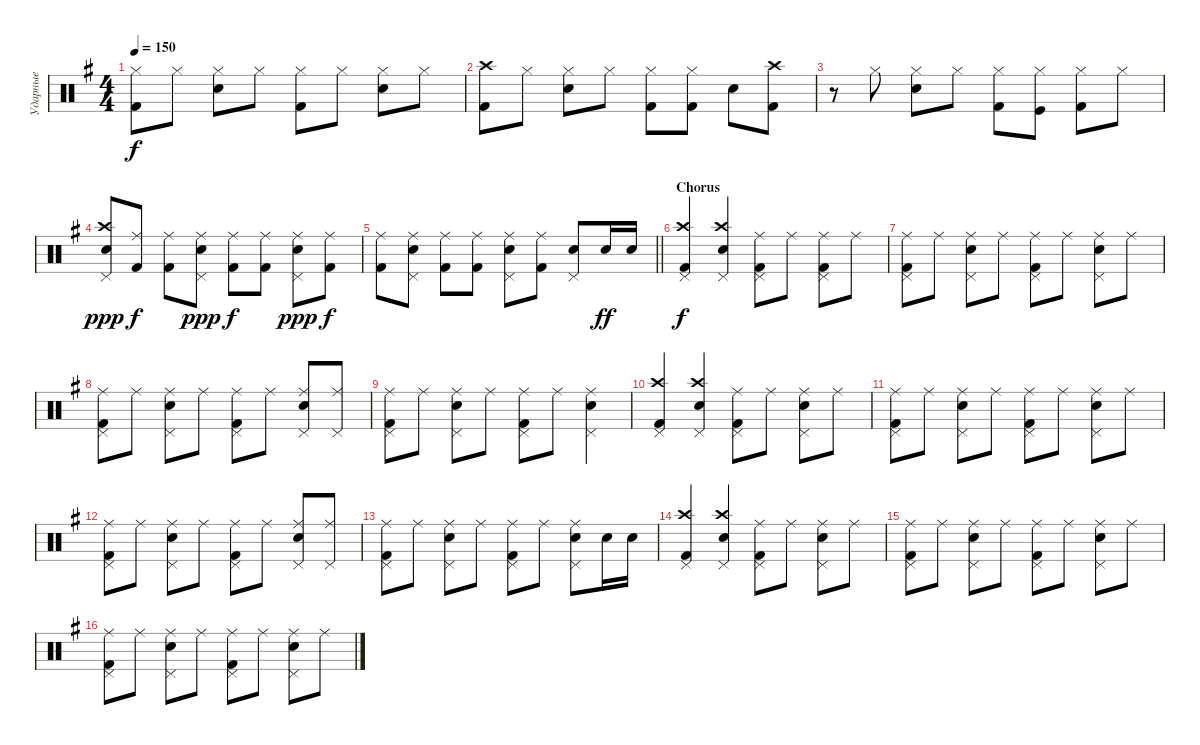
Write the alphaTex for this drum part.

\track ("Ударные" "Ударные") {instrument percussion}
\staff {score}
\articulation defaults
\ts (4 4)
\tempo 150
\clef neutral
\ks eminor
("Hi-Hat (closed)" "Kick (hit) 2").8{dy f} "Hi-Hat (closed)".8 ("Hi-Hat (closed)" "Snare (hit) 2").8 "Hi-Hat (closed)".8 ("Hi-Hat (closed)" "Kick (hit) 2").8 "Hi-Hat (closed)".8 ("Hi-Hat (closed)" "Snare (hit) 2").8 "Hi-Hat (closed)".8 |
("Kick (hit) 2" "Crash high (hit)").8 "Hi-Hat (closed)".8 ("Snare (hit) 2" "Hi-Hat (closed)").8 "Hi-Hat (closed)".8 ("Kick (hit) 2" "Hi-Hat (closed)").8 ("Hi-Hat (closed)" "Kick (hit) 2").8 "Snare (hit) 2".8 ("Kick (hit) 2" "Crash high (hit)").8 |
r.8 "Hi-Hat (closed)".8 ("Snare (hit) 2" "Hi-Hat (closed)").8 "Hi-Hat (closed)".8 ("Kick (hit) 2" "Hi-Hat (closed)").8 ("Hi-Hat (closed)" "Kick (hit)").8 ("Kick (hit) 2" "Hi-Hat (closed)").8 "Hi-Hat (closed)".8 |
("Snare (hit) 2" "Crash high (hit)" "Pedal Hi-Hat (hit)").8{dy ppp} ("Kick (hit) 2" "Ride (middle)").8{dy f} ("Kick (hit) 2" "Ride (middle)").8 ("Snare (hit) 2" "Ride (middle)" "Pedal Hi-Hat (hit)").8{dy ppp} ("Kick (hit) 2" "Ride (middle)").8{dy f} ("Kick (hit) 2" "Ride (middle)").8 ("Snare (hit) 2" "Ride (middle)" "Pedal Hi-Hat (hit)").8{dy ppp} ("Kick (hit) 2" "Ride (middle)").8{dy f} |
\barLineRight lightlight
("Kick (hit) 2" "Ride (middle)").8 ("Snare (hit) 2" "Ride (middle)" "Pedal Hi-Hat (hit)").8 ("Kick (hit) 2" "Ride (middle)").8 ("Kick (hit) 2" "Ride (middle)").8 ("Snare (hit) 2" "Ride (middle)" "Pedal Hi-Hat (hit)").8 ("Kick (hit) 2" "Ride (middle)").8 ("Snare (hit) 2" "Pedal Hi-Hat (hit)").8 "Snare (hit) 2".16{dy ff} "Snare (hit) 2".16 |
\section ("" "Chorus")
("Kick (hit) 2" "Crash high (hit)" "Pedal Hi-Hat (hit)").4{dy f} ("Snare (hit) 2" "Crash high (hit)" "Pedal Hi-Hat (hit)").4 ("Kick (hit) 2" "Ride (middle)" "Pedal Hi-Hat (hit)").8 "Ride (middle)".8 ("Kick (hit) 2" "Ride (middle)" "Pedal Hi-Hat (hit)").8 "Ride (middle)".8 |
("Ride (middle)" "Kick (hit) 2" "Pedal Hi-Hat (hit)").8 "Ride (middle)".8 ("Ride (middle)" "Snare (hit) 2" "Pedal Hi-Hat (hit)").8 "Ride (middle)".8 ("Ride (middle)" "Kick (hit) 2" "Pedal Hi-Hat (hit)").8 "Ride (middle)".8 ("Ride (middle)" "Snare (hit) 2" "Pedal Hi-Hat (hit)").8 "Ride (middle)".8 |
("Ride (middle)" "Kick (hit) 2" "Pedal Hi-Hat (hit)").8 "Ride (middle)".8 ("Ride (middle)" "Snare (hit) 2" "Pedal Hi-Hat (hit)").8 "Ride (middle)".8 ("Ride (middle)" "Kick (hit) 2" "Pedal Hi-Hat (hit)").8 "Ride (middle)".8 ("Ride (middle)" "Snare (hit) 2" "Pedal Hi-Hat (hit)").8 ("Ride (middle)" "Pedal Hi-Hat (hit)").8 |
("Ride (middle)" "Kick (hit) 2" "Pedal Hi-Hat (hit)").8 "Ride (middle)".8 ("Ride (middle)" "Snare (hit) 2" "Pedal Hi-Hat (hit)").8 "Ride (middle)".8 ("Ride (middle)" "Kick (hit) 2" "Pedal Hi-Hat (hit)").8 "Ride (middle)".8 ("Ride (middle)" "Snare (hit) 2" "Pedal Hi-Hat (hit)").4 |
("Kick (hit) 2" "Crash high (hit)" "Pedal Hi-Hat (hit)").4 ("Snare (hit) 2" "Crash high (hit)" "Pedal Hi-Hat (hit)").4 ("Kick (hit) 2" "Ride (middle)" "Pedal Hi-Hat (hit)").8 "Ride (middle)".8 ("Snare (hit) 2" "Ride (middle)" "Pedal Hi-Hat (hit)").8 "Ride (middle)".8 |
("Ride (middle)" "Kick (hit) 2" "Pedal Hi-Hat (hit)").8 "Ride (middle)".8 ("Ride (middle)" "Snare (hit) 2" "Pedal Hi-Hat (hit)").8 "Ride (middle)".8 ("Ride (middle)" "Kick (hit) 2" "Pedal Hi-Hat (hit)").8 "Ride (middle)".8 ("Ride (middle)" "Snare (hit) 2" "Pedal Hi-Hat (hit)").8 "Ride (middle)".8 |
("Ride (middle)" "Kick (hit) 2" "Pedal Hi-Hat (hit)").8 "Ride (middle)".8 ("Ride (middle)" "Snare (hit) 2" "Pedal Hi-Hat (hit)").8 "Ride (middle)".8 ("Ride (middle)" "Kick (hit) 2" "Pedal Hi-Hat (hit)").8 "Ride (middle)".8 ("Ride (middle)" "Snare (hit) 2" "Pedal Hi-Hat (hit)").8 ("Ride (middle)" "Pedal Hi-Hat (hit)").8 |
("Ride (middle)" "Kick (hit) 2" "Pedal Hi-Hat (hit)").8 "Ride (middle)".8 ("Ride (middle)" "Snare (hit) 2" "Pedal Hi-Hat (hit)").8 "Ride (middle)".8 ("Ride (middle)" "Kick (hit) 2" "Pedal Hi-Hat (hit)").8 "Ride (middle)".8 ("Ride (middle)" "Snare (hit) 2" "Pedal Hi-Hat (hit)").8 "Snare (hit) 2".16 "Snare (hit) 2".16 |
("Kick (hit) 2" "Crash high (hit)" "Pedal Hi-Hat (hit)").4 ("Snare (hit) 2" "Crash high (hit)" "Pedal Hi-Hat (hit)").4 ("Kick (hit) 2" "Ride (middle)" "Pedal Hi-Hat (hit)").8 "Ride (middle)".8 ("Snare (hit) 2" "Ride (middle)" "Pedal Hi-Hat (hit)").8 "Ride (middle)".8 |
("Ride (middle)" "Kick (hit) 2" "Pedal Hi-Hat (hit)").8 "Ride (middle)".8 ("Ride (middle)" "Snare (hit) 2" "Pedal Hi-Hat (hit)").8 "Ride (middle)".8 ("Ride (middle)" "Kick (hit) 2" "Pedal Hi-Hat (hit)").8 "Ride (middle)".8 ("Ride (middle)" "Snare (hit) 2" "Pedal Hi-Hat (hit)").8 "Ride (middle)".8 |
("Ride (middle)" "Kick (hit) 2" "Pedal Hi-Hat (hit)").8 "Ride (middle)".8 ("Ride (middle)" "Snare (hit) 2" "Pedal Hi-Hat (hit)").8 "Ride (middle)".8 ("Ride (middle)" "Kick (hit) 2" "Pedal Hi-Hat (hit)").8 "Ride (middle)".8 ("Ride (middle)" "Snare (hit) 2" "Pedal Hi-Hat (hit)").8 "Ride (middle)".8
